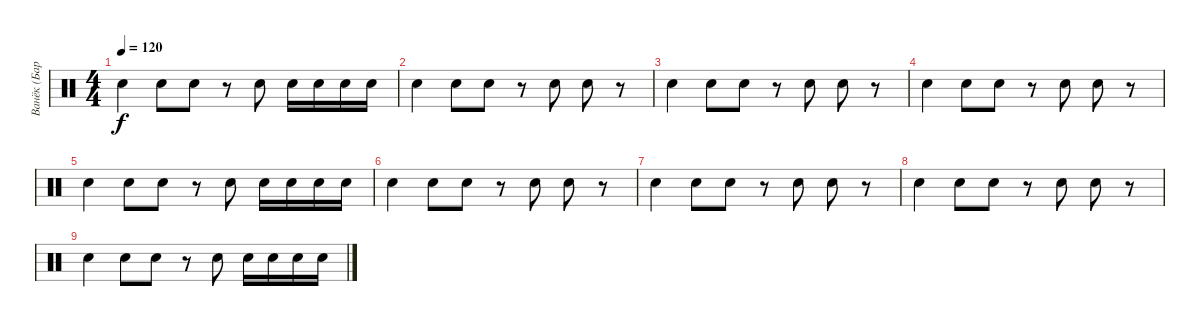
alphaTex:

\track ("Ванёк (Барабанщик)" "Ванёк (Бар") {instrument percussion}
\staff {score}
\articulation defaults
\ts (4 4)
\tempo 120
\clef neutral
\ks c "Electric Snare (hit)".4{dy f} "Electric Snare (hit)".8 "Electric Snare (hit)".8
r.8 "Electric Snare (hit)".8 "Electric Snare (hit)".16 "Electric Snare (hit)".16 "Electric Snare (hit)".16 "Electric Snare (hit)".16 |
"Electric Snare (hit)".4 "Electric Snare (hit)".8 "Electric Snare (hit)".8 r.8 "Electric Snare (hit)".8 "Electric Snare (hit)".8 r.8 |
"Electric Snare (hit)".4 "Electric Snare (hit)".8 "Electric Snare (hit)".8 r.8 "Electric Snare (hit)".8 "Electric Snare (hit)".8 r.8 |
"Electric Snare (hit)".4 "Electric Snare (hit)".8 "Electric Snare (hit)".8 r.8 "Electric Snare (hit)".8 "Electric Snare (hit)".8 r.8 |
"Electric Snare (hit)".4 "Electric Snare (hit)".8 "Electric Snare (hit)".8 r.8 "Electric Snare (hit)".8 "Electric Snare (hit)".16 "Electric Snare (hit)".16 "Electric Snare (hit)".16 "Electric Snare (hit)".16 |
"Electric Snare (hit)".4 "Electric Snare (hit)".8 "Electric Snare (hit)".8 r.8 "Electric Snare (hit)".8 "Electric Snare (hit)".8 r.8 |
"Electric Snare (hit)".4 "Electric Snare (hit)".8 "Electric Snare (hit)".8 r.8 "Electric Snare (hit)".8 "Electric Snare (hit)".8 r.8 |
"Electric Snare (hit)".4 "Electric Snare (hit)".8 "Electric Snare (hit)".8 r.8 "Electric Snare (hit)".8 "Electric Snare (hit)".8 r.8 |
"Electric Snare (hit)".4 "Electric Snare (hit)".8 "Electric Snare (hit)".8 r.8 "Electric Snare (hit)".8 "Electric Snare (hit)".16 "Electric Snare (hit)".16 "Electric Snare (hit)".16 "Electric Snare (hit)".16
